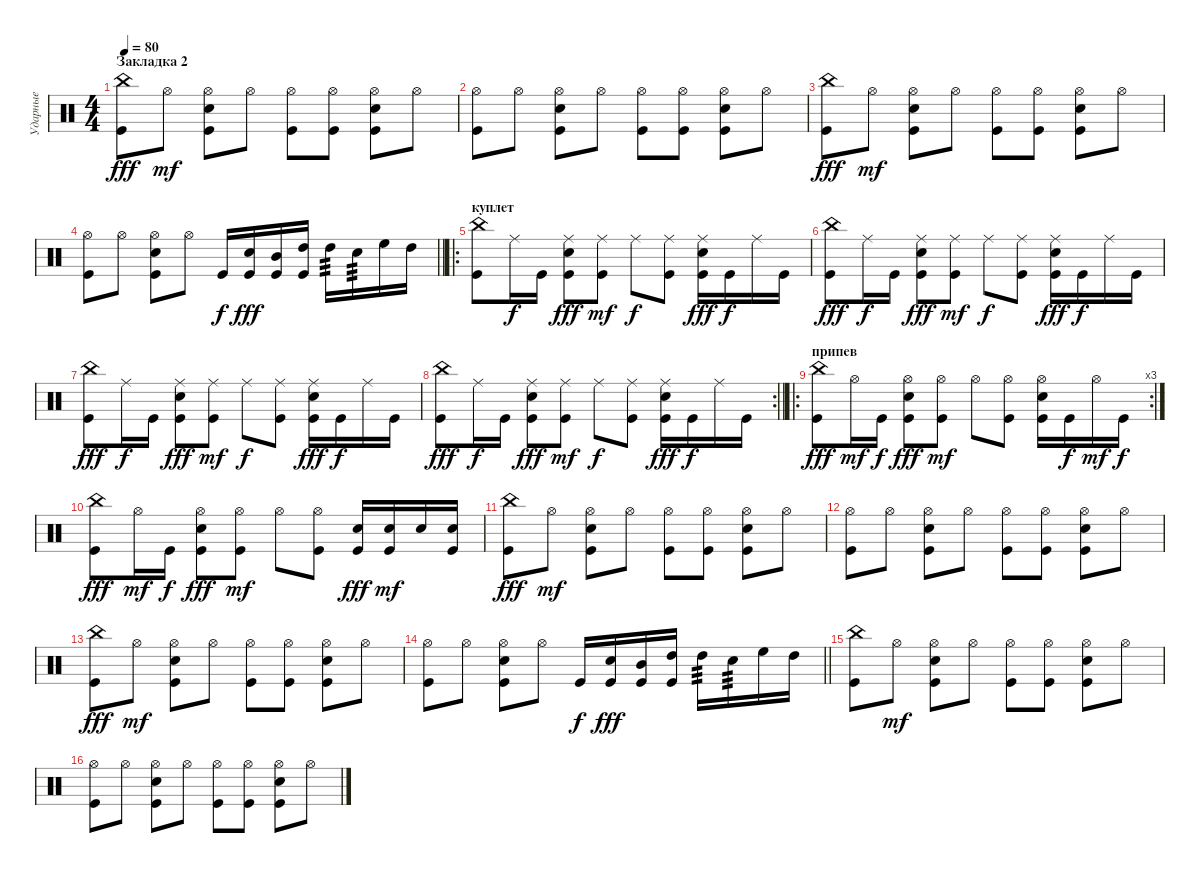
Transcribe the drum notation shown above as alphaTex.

\track ("Ударные" "Ударные") {instrument percussion}
\staff {score}
\articulation defaults
\ts (4 4)
\section ("" "Закладка 2")
\tempo 80
\clef neutral
\ks c
("Kick (hit)" "China (hit)").8{dy fff} "Hi-Hat (open)".8{dy mf} ("Kick (hit)" "Snare (hit) 2" "Hi-Hat (open)").8 "Hi-Hat (open)".8 ("Hi-Hat (open)" "Kick (hit)").8 ("Kick (hit)" "Hi-Hat (open)").8 ("Kick (hit)" "Snare (hit) 2" "Hi-Hat (open)").8 "Hi-Hat (open)".8 |
("Hi-Hat (open)" "Kick (hit)").8 "Hi-Hat (open)".8 ("Kick (hit)" "Snare (hit) 2" "Hi-Hat (open)").8 "Hi-Hat (open)".8 ("Hi-Hat (open)" "Kick (hit)").8 ("Kick (hit)" "Hi-Hat (open)").8 ("Kick (hit)" "Snare (hit) 2" "Hi-Hat (open)").8 "Hi-Hat (open)".8 |
("Kick (hit)" "China (hit)").8{dy fff} "Hi-Hat (open)".8{dy mf} ("Kick (hit)" "Snare (hit) 2" "Hi-Hat (open)").8 "Hi-Hat (open)".8 ("Hi-Hat (open)" "Kick (hit)").8 ("Kick (hit)" "Hi-Hat (open)").8 ("Kick (hit)" "Snare (hit) 2" "Hi-Hat (open)").8 "Hi-Hat (open)".8 |
\barLineRight lightlight
("Hi-Hat (open)" "Kick (hit)").8 "Hi-Hat (open)".8 ("Kick (hit)" "Snare (hit) 2" "Hi-Hat (open)").8 "Hi-Hat (open)".8 "Kick (hit)".16{dy f} ("Kick (hit)" "Snare (hit) 2").16{dy fff} ("Kick (hit)" "Mid Tom (hit)").16 ("High Tom (hit)" "Kick (hit)").16 "High Tom (hit)".16{tp 3} "Snare (hit) 2".16{tp 3} "High Floor Tom (hit)".16 "High Tom (hit)".16 |
\ro
\section ("" "куплет")
("Kick (hit)" "China (hit)").8 "Ride (middle)".16{dy f} "Kick (hit)".16 ("Ride (middle)" "Kick (hit)" "Snare (hit) 2").8{dy fff} ("Ride (middle)" "Kick (hit)").8{dy mf} "Ride (middle)".8{dy f} ("Kick (hit)" "Ride (middle)").8 ("Kick (hit)" "Snare (hit) 2" "Ride (middle)").16{dy fff} "Kick (hit)".16{dy f} "Ride (middle)".16 "Kick (hit)".16 |
("Kick (hit)" "China (hit)").8{dy fff} "Ride (middle)".16{dy f} "Kick (hit)".16 ("Ride (middle)" "Kick (hit)" "Snare (hit) 2").8{dy fff} ("Ride (middle)" "Kick (hit)").8{dy mf} "Ride (middle)".8{dy f} ("Kick (hit)" "Ride (middle)").8 ("Kick (hit)" "Snare (hit) 2" "Ride (middle)").16{dy fff} "Kick (hit)".16{dy f} "Ride (middle)".16 "Kick (hit)".16 |
("Kick (hit)" "China (hit)").8{dy fff} "Ride (middle)".16{dy f} "Kick (hit)".16 ("Ride (middle)" "Kick (hit)" "Snare (hit) 2").8{dy fff} ("Ride (middle)" "Kick (hit)").8{dy mf} "Ride (middle)".8{dy f} ("Kick (hit)" "Ride (middle)").8 ("Kick (hit)" "Snare (hit) 2" "Ride (middle)").16{dy fff} "Kick (hit)".16{dy f} "Ride (middle)".16 "Kick (hit)".16 |
\rc 2
\barLineRight lightlight
("Kick (hit)" "China (hit)").8{dy fff} "Ride (middle)".16{dy f} "Kick (hit)".16 ("Ride (middle)" "Kick (hit)" "Snare (hit) 2").8{dy fff} ("Ride (middle)" "Kick (hit)").8{dy mf} "Ride (middle)".8{dy f} ("Kick (hit)" "Ride (middle)").8 ("Kick (hit)" "Snare (hit) 2" "Ride (middle)").16{dy fff} "Kick (hit)".16{dy f} "Ride (middle)".16 "Kick (hit)".16 |
\ro
\rc 3
\section ("" "припев")
("Kick (hit)" "China (hit)").8{dy fff} "Hi-Hat (open)".16{dy mf} "Kick (hit)".16{dy f} ("Hi-Hat (open)" "Kick (hit)" "Snare (hit) 2").8{dy fff} ("Hi-Hat (open)" "Kick (hit)").8{dy mf} "Hi-Hat (open)".8 ("Kick (hit)" "Hi-Hat (open)").8 ("Kick (hit)" "Snare (hit) 2" "Hi-Hat (open)").16 "Kick (hit)".16{dy f} "Hi-Hat (open)".16{dy mf} "Kick (hit)".16{dy f} |
("Kick (hit)" "China (hit)").8{dy fff} "Hi-Hat (open)".16{dy mf} "Kick (hit)".16{dy f} ("Hi-Hat (open)" "Kick (hit)" "Snare (hit) 2").8{dy fff} ("Hi-Hat (open)" "Kick (hit)").8{dy mf} "Hi-Hat (open)".8 ("Kick (hit)" "Hi-Hat (open)").8 ("Kick (hit)" "Snare (hit) 2").16{dy fff} ("Kick (hit)" "Snare (hit) 2").16{dy mf} "Snare (hit) 2".16 ("Kick (hit)" "Snare (hit) 2").16 |
("Kick (hit)" "China (hit)").8{dy fff} "Hi-Hat (open)".8{dy mf} ("Kick (hit)" "Snare (hit) 2" "Hi-Hat (open)").8 "Hi-Hat (open)".8 ("Hi-Hat (open)" "Kick (hit)").8 ("Kick (hit)" "Hi-Hat (open)").8 ("Kick (hit)" "Snare (hit) 2" "Hi-Hat (open)").8 "Hi-Hat (open)".8 |
("Hi-Hat (open)" "Kick (hit)").8 "Hi-Hat (open)".8 ("Kick (hit)" "Snare (hit) 2" "Hi-Hat (open)").8 "Hi-Hat (open)".8 ("Hi-Hat (open)" "Kick (hit)").8 ("Kick (hit)" "Hi-Hat (open)").8 ("Kick (hit)" "Snare (hit) 2" "Hi-Hat (open)").8 "Hi-Hat (open)".8 |
("Kick (hit)" "China (hit)").8{dy fff} "Hi-Hat (open)".8{dy mf} ("Kick (hit)" "Snare (hit) 2" "Hi-Hat (open)").8 "Hi-Hat (open)".8 ("Hi-Hat (open)" "Kick (hit)").8 ("Kick (hit)" "Hi-Hat (open)").8 ("Kick (hit)" "Snare (hit) 2" "Hi-Hat (open)").8 "Hi-Hat (open)".8 |
\barLineRight lightlight
("Hi-Hat (open)" "Kick (hit)").8 "Hi-Hat (open)".8 ("Kick (hit)" "Snare (hit) 2" "Hi-Hat (open)").8 "Hi-Hat (open)".8 "Kick (hit)".16{dy f} ("Kick (hit)" "Snare (hit) 2").16{dy fff} ("Kick (hit)" "Mid Tom (hit)").16 ("High Tom (hit)" "Kick (hit)").16 "High Tom (hit)".16{tp 3} "Snare (hit) 2".16{tp 3} "High Floor Tom (hit)".16 "High Tom (hit)".16 |
("Kick (hit)" "China (hit)").8 "Hi-Hat (open)".8{dy mf} ("Kick (hit)" "Snare (hit) 2" "Hi-Hat (open)").8 "Hi-Hat (open)".8 ("Hi-Hat (open)" "Kick (hit)").8 ("Kick (hit)" "Hi-Hat (open)").8 ("Kick (hit)" "Snare (hit) 2" "Hi-Hat (open)").8 "Hi-Hat (open)".8 |
("Hi-Hat (open)" "Kick (hit)").8 "Hi-Hat (open)".8 ("Kick (hit)" "Snare (hit) 2" "Hi-Hat (open)").8 "Hi-Hat (open)".8 ("Hi-Hat (open)" "Kick (hit)").8 ("Kick (hit)" "Hi-Hat (open)").8 ("Kick (hit)" "Snare (hit) 2" "Hi-Hat (open)").8 "Hi-Hat (open)".8
